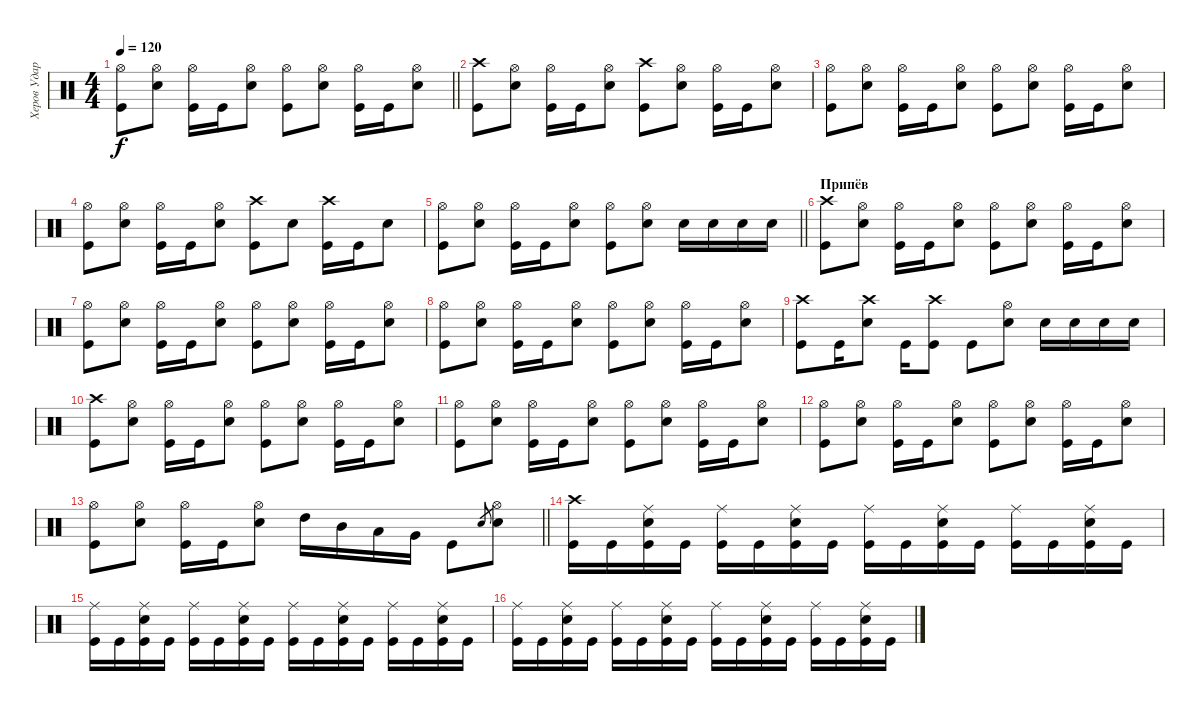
\track ("Херов Ударник" "Херов Удар") {instrument percussion}
\staff {score}
\articulation defaults
\ts (4 4)
\tempo 120
\clef neutral
\barLineRight lightlight
\ks c
("Hi-Hat (open)" "Kick (hit)").8{dy f} ("Hi-Hat (open)" "Electric Snare (hit)").8 ("Hi-Hat (open)" "Kick (hit)").16 "Kick (hit)".16 ("Hi-Hat (open)" "Electric Snare (hit)").8 ("Hi-Hat (open)" "Kick (hit)").8 ("Hi-Hat (open)" "Electric Snare (hit)").8 ("Hi-Hat (open)" "Kick (hit)").16 "Kick (hit)".16 ("Hi-Hat (open)" "Electric Snare (hit)").8 |
("Crash high (hit)" "Kick (hit)").8 ("Hi-Hat (open)" "Electric Snare (hit)").8 ("Hi-Hat (open)" "Kick (hit)").16 "Kick (hit)".16 ("Hi-Hat (open)" "Electric Snare (hit)").8 ("Crash high (hit)" "Kick (hit)").8 ("Hi-Hat (open)" "Electric Snare (hit)").8 ("Hi-Hat (open)" "Kick (hit)").16 "Kick (hit)".16 ("Hi-Hat (open)" "Electric Snare (hit)").8 |
("Hi-Hat (open)" "Kick (hit)").8 ("Hi-Hat (open)" "Electric Snare (hit)").8 ("Hi-Hat (open)" "Kick (hit)").16 "Kick (hit)".16 ("Hi-Hat (open)" "Electric Snare (hit)").8 ("Hi-Hat (open)" "Kick (hit)").8 ("Hi-Hat (open)" "Electric Snare (hit)").8 ("Hi-Hat (open)" "Kick (hit)").16 "Kick (hit)".16 ("Hi-Hat (open)" "Electric Snare (hit)").8 |
("Hi-Hat (open)" "Kick (hit)").8 ("Hi-Hat (open)" "Electric Snare (hit)").8 ("Hi-Hat (open)" "Kick (hit)").16 "Kick (hit)".16 ("Hi-Hat (open)" "Electric Snare (hit)").8 ("Crash high (hit)" "Kick (hit)").8 "Electric Snare (hit)".8 ("Crash high (hit)" "Kick (hit)").16 "Kick (hit)".16 "Electric Snare (hit)".8 |
\barLineRight lightlight
("Hi-Hat (open)" "Kick (hit)").8 ("Hi-Hat (open)" "Electric Snare (hit)").8 ("Hi-Hat (open)" "Kick (hit)").16 "Kick (hit)".16 ("Hi-Hat (open)" "Electric Snare (hit)").8 ("Hi-Hat (open)" "Kick (hit)").8 ("Hi-Hat (open)" "Electric Snare (hit)").8 "Electric Snare (hit)".16 "Electric Snare (hit)".16 "Electric Snare (hit)".16 "Electric Snare (hit)".16 |
\section ("" "Припёв")
("Crash high (hit)" "Kick (hit)").8 ("Hi-Hat (open)" "Electric Snare (hit)").8 ("Hi-Hat (open)" "Kick (hit)").16 "Kick (hit)".16 ("Hi-Hat (open)" "Electric Snare (hit)").8 ("Hi-Hat (open)" "Kick (hit)").8 ("Hi-Hat (open)" "Electric Snare (hit)").8 ("Hi-Hat (open)" "Kick (hit)").16 "Kick (hit)".16 ("Hi-Hat (open)" "Electric Snare (hit)").8 |
("Hi-Hat (open)" "Kick (hit)").8 ("Hi-Hat (open)" "Electric Snare (hit)").8 ("Hi-Hat (open)" "Kick (hit)").16 "Kick (hit)".16 ("Hi-Hat (open)" "Electric Snare (hit)").8 ("Hi-Hat (open)" "Kick (hit)").8 ("Hi-Hat (open)" "Electric Snare (hit)").8 ("Hi-Hat (open)" "Kick (hit)").16 "Kick (hit)".16 ("Hi-Hat (open)" "Electric Snare (hit)").8 |
("Hi-Hat (open)" "Kick (hit)").8 ("Hi-Hat (open)" "Electric Snare (hit)").8 ("Hi-Hat (open)" "Kick (hit)").16 "Kick (hit)".16 ("Hi-Hat (open)" "Electric Snare (hit)").8 ("Hi-Hat (open)" "Kick (hit)").8 ("Hi-Hat (open)" "Electric Snare (hit)").8 ("Hi-Hat (open)" "Kick (hit)").16 "Kick (hit)".16 ("Hi-Hat (open)" "Electric Snare (hit)").8 |
("Crash high (hit)" "Kick (hit)").8 "Kick (hit)".16 ("Crash high (hit)" "Electric Snare (hit)").8 "Kick (hit)".16 ("Crash high (hit)" "Kick (hit)").8 "Kick (hit)".8 ("Hi-Hat (open)" "Electric Snare (hit)").8 "Electric Snare (hit)".16 "Electric Snare (hit)".16 "Electric Snare (hit)".16 "Electric Snare (hit)".16 |
("Crash high (hit)" "Kick (hit)").8 ("Hi-Hat (open)" "Electric Snare (hit)").8 ("Hi-Hat (open)" "Kick (hit)").16 "Kick (hit)".16 ("Hi-Hat (open)" "Electric Snare (hit)").8 ("Hi-Hat (open)" "Kick (hit)").8 ("Hi-Hat (open)" "Electric Snare (hit)").8 ("Hi-Hat (open)" "Kick (hit)").16 "Kick (hit)".16 ("Hi-Hat (open)" "Electric Snare (hit)").8 |
("Hi-Hat (open)" "Kick (hit)").8 ("Hi-Hat (open)" "Electric Snare (hit)").8 ("Hi-Hat (open)" "Kick (hit)").16 "Kick (hit)".16 ("Hi-Hat (open)" "Electric Snare (hit)").8 ("Hi-Hat (open)" "Kick (hit)").8 ("Hi-Hat (open)" "Electric Snare (hit)").8 ("Hi-Hat (open)" "Kick (hit)").16 "Kick (hit)".16 ("Hi-Hat (open)" "Electric Snare (hit)").8 |
("Hi-Hat (open)" "Kick (hit)").8 ("Hi-Hat (open)" "Electric Snare (hit)").8 ("Hi-Hat (open)" "Kick (hit)").16 "Kick (hit)".16 ("Hi-Hat (open)" "Electric Snare (hit)").8 ("Hi-Hat (open)" "Kick (hit)").8 ("Hi-Hat (open)" "Electric Snare (hit)").8 ("Hi-Hat (open)" "Kick (hit)").16 "Kick (hit)".16 ("Hi-Hat (open)" "Electric Snare (hit)").8 |
\barLineRight lightlight
("Hi-Hat (open)" "Kick (hit)").8 ("Hi-Hat (open)" "Electric Snare (hit)").8 ("Hi-Hat (open)" "Kick (hit)").16 "Kick (hit)".16 ("Hi-Hat (open)" "Electric Snare (hit)").8 "High Tom (hit)".16 "Mid Tom (hit)".16 "Low Tom (hit)".16 "Very Low Tom (hit)".16 "Kick (hit)".8 "Electric Snare (hit)".8{gr} ("Hi-Hat (open)" "Electric Snare (hit)").8 |
\section ("" "")
("Crash high (hit)" "Kick (hit)").16 "Kick (hit)".16 ("Ride (middle)" "Electric Snare (hit)" "Kick (hit)").16 "Kick (hit)".16 ("Ride (middle)" "Kick (hit)").16 "Kick (hit)".16 ("Ride (middle)" "Electric Snare (hit)" "Kick (hit)").16 "Kick (hit)".16 ("Ride (middle)" "Kick (hit)").16 "Kick (hit)".16 ("Ride (middle)" "Electric Snare (hit)" "Kick (hit)").16 "Kick (hit)".16 ("Ride (middle)" "Kick (hit)").16 "Kick (hit)".16 ("Ride (middle)" "Electric Snare (hit)" "Kick (hit)").16 "Kick (hit)".16 |
("Ride (middle)" "Kick (hit)").16 "Kick (hit)".16 ("Ride (middle)" "Electric Snare (hit)" "Kick (hit)").16 "Kick (hit)".16 ("Ride (middle)" "Kick (hit)").16 "Kick (hit)".16 ("Ride (middle)" "Electric Snare (hit)" "Kick (hit)").16 "Kick (hit)".16 ("Ride (middle)" "Kick (hit)").16 "Kick (hit)".16 ("Ride (middle)" "Electric Snare (hit)" "Kick (hit)").16 "Kick (hit)".16 ("Ride (middle)" "Kick (hit)").16 "Kick (hit)".16 ("Ride (middle)" "Electric Snare (hit)" "Kick (hit)").16 "Kick (hit)".16 |
("Ride (middle)" "Kick (hit)").16 "Kick (hit)".16 ("Ride (middle)" "Electric Snare (hit)" "Kick (hit)").16 "Kick (hit)".16 ("Ride (middle)" "Kick (hit)").16 "Kick (hit)".16 ("Ride (middle)" "Electric Snare (hit)" "Kick (hit)").16 "Kick (hit)".16 ("Ride (middle)" "Kick (hit)").16 "Kick (hit)".16 ("Ride (middle)" "Electric Snare (hit)" "Kick (hit)").16 "Kick (hit)".16 ("Ride (middle)" "Kick (hit)").16 "Kick (hit)".16 ("Ride (middle)" "Electric Snare (hit)" "Kick (hit)").16 "Kick (hit)".16
